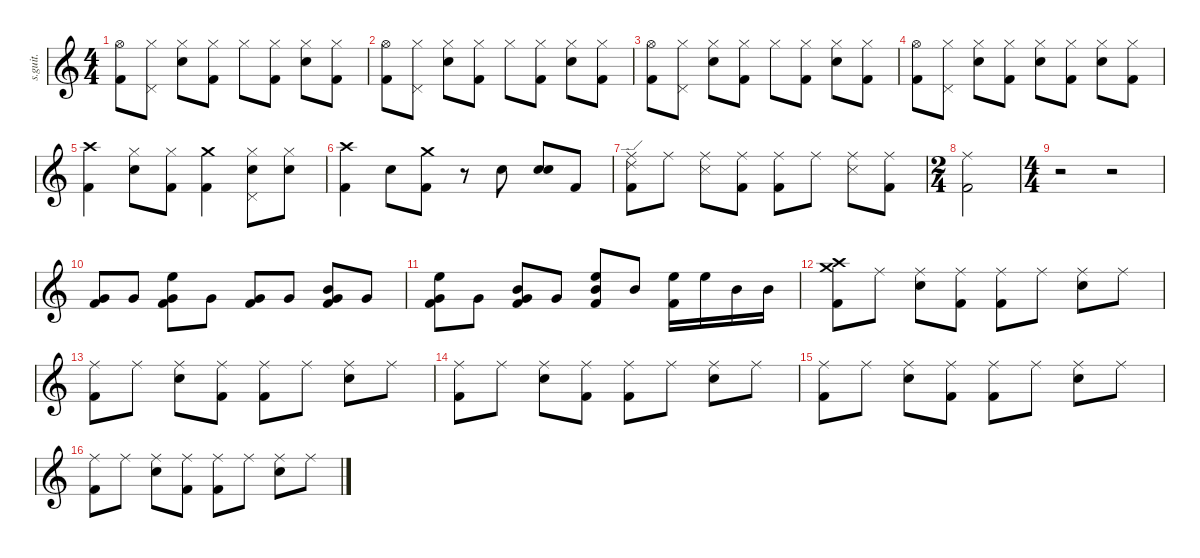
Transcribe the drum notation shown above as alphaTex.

\defaultSystemsLayout 4
\hideDynamics
\bracketExtendMode nobrackets
\track ("Jim Gordon (Drums)" "s.guit.") {instrument percussion}
\staff {score}
\articulation defaults
\ts (4 4)
\tempo (107 hide)
\clef g2
\ks c
("Kick (hit) 2" "Hi-Hat (open)").8{dy mp} ("Hi-Hat (closed)" "Pedal Hi-Hat (hit)").8 ("Snare (hit) 2" "Hi-Hat (closed)").8 ("Kick (hit) 2" "Hi-Hat (closed)").8 "Hi-Hat (closed)".8 ("Hi-Hat (closed)" "Kick (hit) 2").8 ("Snare (hit) 2" "Hi-Hat (closed)").8 ("Kick (hit) 2" "Hi-Hat (closed)").8 |
("Hi-Hat (open)" "Kick (hit) 2").8 ("Hi-Hat (closed)" "Pedal Hi-Hat (hit)").8 ("Snare (hit) 2" "Hi-Hat (closed)").8 ("Kick (hit) 2" "Hi-Hat (closed)").8 "Hi-Hat (closed)".8 ("Hi-Hat (closed)" "Kick (hit) 2").8 ("Snare (hit) 2" "Hi-Hat (closed)").8 ("Kick (hit) 2" "Hi-Hat (closed)").8 |
("Kick (hit) 2" "Hi-Hat (open)").8 ("Hi-Hat (closed)" "Pedal Hi-Hat (hit)").8 ("Snare (hit) 2" "Hi-Hat (closed)").8 ("Kick (hit) 2" "Hi-Hat (closed)").8 "Hi-Hat (closed)".8 ("Hi-Hat (closed)" "Kick (hit) 2").8 ("Snare (hit) 2" "Hi-Hat (closed)").8 ("Kick (hit) 2" "Hi-Hat (closed)").8 |
("Kick (hit) 2" "Hi-Hat (open)").8 ("Hi-Hat (closed)" "Pedal Hi-Hat (hit)").8 ("Hi-Hat (closed)" "Snare (hit) 2").8 ("Kick (hit) 2" "Hi-Hat (closed)").8 ("Snare (hit) 2" "Hi-Hat (closed)").8 ("Hi-Hat (closed)" "Kick (hit) 2").8 ("Snare (hit) 2" "Hi-Hat (closed)").8 ("Hi-Hat (closed)" "Kick (hit) 2").8 |
("Crash high (hit)" "Kick (hit) 2").4 ("Snare (hit) 2" "Hi-Hat (closed)").8 ("Hi-Hat (closed)" "Kick (hit) 2").8 ("Kick (hit) 2" "Crash medium (hit)").4 ("Snare (hit) 2" "Hi-Hat (closed)" "Pedal Hi-Hat (hit)").8 ("Snare (hit) 2" "Hi-Hat (closed)").8 |
("Crash high (hit)" "Kick (hit) 2").4 "Snare (hit) 2".8 ("Kick (hit) 2" "Crash medium (hit)").8 r.8 "Snare (hit) 2".8 ("Snare (hit) 2" "Snare (hit) 2").8 "Kick (hit) 2".8 |
("Ride (middle)" "Ride (edge) 2" "Kick (hit) 2").8 "Ride (middle)".8 ("Snare (side stick) 3" "Ride (middle)").8 ("Kick (hit) 2" "Ride (middle)").8 ("Ride (middle)" "Kick (hit) 2").8 "Ride (middle)".8 ("Snare (side stick) 3" "Ride (middle)").8 ("Kick (hit) 2" "Ride (middle)").8 |
\ts (2 4)
\beaming (8 2 2 2 2)
("Kick (hit) 2" "Ride (middle)").2 |
\ts (4 4)
\beaming (8 2 2 2 2)
r.2 r.2 |
("Very Low Tom (hit)" "Kick (hit) 2").8 "Very Low Tom (hit)".8 ("Very Low Tom (hit)" "High Floor Tom (hit)" "Kick (hit) 2").8 "Very Low Tom (hit)".8 ("Very Low Tom (hit)" "Kick (hit) 2").8 "Very Low Tom (hit)".8 ("Very Low Tom (hit)" "Mid Tom (hit)" "Kick (hit) 2").8 "Very Low Tom (hit)".8 |
("Very Low Tom (hit)" "High Floor Tom (hit)" "Kick (hit) 2").8 "Very Low Tom (hit)".8 ("Very Low Tom (hit)" "Mid Tom (hit)" "Kick (hit) 2").8 "Very Low Tom (hit)".8 ("Mid Tom (hit)" "High Floor Tom (hit)" "Kick (hit) 2").8 "Mid Tom (hit)".8 ("High Floor Tom (hit)" "Kick (hit) 2").16 "High Floor Tom (hit)".16 "Mid Tom (hit)".16 "Mid Tom (hit)".16 |
("Crash high (hit)" "Crash medium (hit)" "Kick (hit) 2").8 "Ride (middle)".8 ("Snare (hit) 2" "Ride (middle)").8 ("Kick (hit) 2" "Ride (middle)").8 ("Ride (middle)" "Kick (hit) 2").8 "Ride (middle)".8 ("Snare (hit) 2" "Ride (middle)").8 "Ride (middle)".8 |
("Ride (middle)" "Kick (hit) 2").8 "Ride (middle)".8 ("Ride (middle)" "Snare (hit) 2").8 ("Kick (hit) 2" "Ride (middle)").8 ("Ride (middle)" "Kick (hit) 2").8 "Ride (middle)".8 ("Snare (hit) 2" "Ride (middle)").8 "Ride (middle)".8 |
("Ride (middle)" "Kick (hit) 2").8 "Ride (middle)".8 ("Snare (hit) 2" "Ride (middle)").8 ("Kick (hit) 2" "Ride (middle)").8 ("Ride (middle)" "Kick (hit) 2").8 "Ride (middle)".8 ("Snare (hit) 2" "Ride (middle)").8 "Ride (middle)".8 |
("Ride (middle)" "Kick (hit) 2").8 "Ride (middle)".8 ("Snare (hit) 2" "Ride (middle)").8 ("Kick (hit) 2" "Ride (middle)").8 ("Ride (middle)" "Kick (hit) 2").8 "Ride (middle)".8 ("Ride (middle)" "Snare (hit) 2").8 "Ride (middle)".8 |
("Ride (middle)" "Kick (hit) 2").8 "Ride (middle)".8 ("Snare (hit) 2" "Ride (middle)").8 ("Kick (hit) 2" "Ride (middle)").8 ("Ride (middle)" "Kick (hit) 2").8 "Ride (middle)".8 ("Snare (hit) 2" "Ride (middle)").8 "Ride (middle)".8
